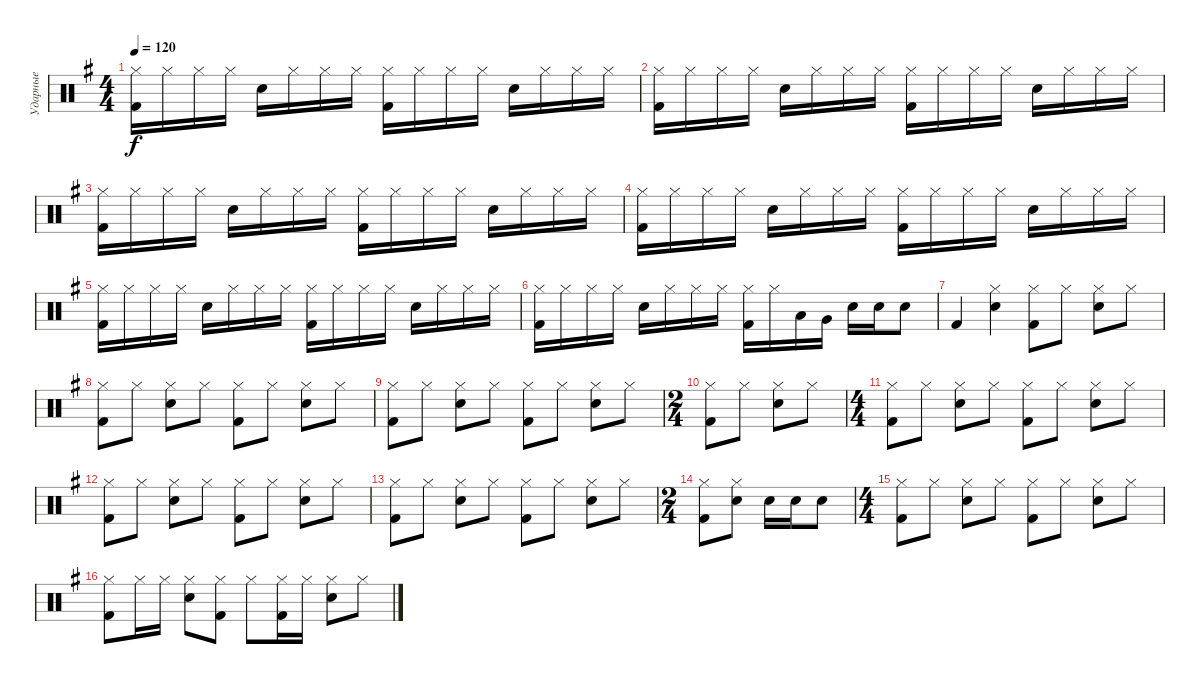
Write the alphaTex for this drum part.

\track ("Ударные" "Ударные") {instrument percussion}
\staff {score}
\articulation defaults
\ts (4 4)
\tempo 120
\clef neutral
\ks g
("Hi-Hat (closed)" "Kick (hit) 2").16{dy f} "Hi-Hat (closed)".16 "Hi-Hat (closed)".16 "Hi-Hat (closed)".16 "Snare (hit) 2".16 "Hi-Hat (closed)".16 "Hi-Hat (closed)".16 "Hi-Hat (closed)".16 ("Hi-Hat (closed)" "Kick (hit) 2").16 "Hi-Hat (closed)".16 "Hi-Hat (closed)".16 "Hi-Hat (closed)".16 "Snare (hit) 2".16 "Hi-Hat (closed)".16 "Hi-Hat (closed)".16 "Hi-Hat (closed)".16 |
("Hi-Hat (closed)" "Kick (hit) 2").16 "Hi-Hat (closed)".16 "Hi-Hat (closed)".16 "Hi-Hat (closed)".16 "Snare (hit) 2".16 "Hi-Hat (closed)".16 "Hi-Hat (closed)".16 "Hi-Hat (closed)".16 ("Hi-Hat (closed)" "Kick (hit) 2").16 "Hi-Hat (closed)".16 "Hi-Hat (closed)".16 "Hi-Hat (closed)".16 "Snare (hit) 2".16 "Hi-Hat (closed)".16 "Hi-Hat (closed)".16 "Hi-Hat (closed)".16 |
("Hi-Hat (closed)" "Kick (hit) 2").16 "Hi-Hat (closed)".16 "Hi-Hat (closed)".16 "Hi-Hat (closed)".16 "Snare (hit) 2".16 "Hi-Hat (closed)".16 "Hi-Hat (closed)".16 "Hi-Hat (closed)".16 ("Hi-Hat (closed)" "Kick (hit) 2").16 "Hi-Hat (closed)".16 "Hi-Hat (closed)".16 "Hi-Hat (closed)".16 "Snare (hit) 2".16 "Hi-Hat (closed)".16 "Hi-Hat (closed)".16 "Hi-Hat (closed)".16 |
("Hi-Hat (closed)" "Kick (hit) 2").16 "Hi-Hat (closed)".16 "Hi-Hat (closed)".16 "Hi-Hat (closed)".16 "Snare (hit) 2".16 "Hi-Hat (closed)".16 "Hi-Hat (closed)".16 "Hi-Hat (closed)".16 ("Hi-Hat (closed)" "Kick (hit) 2").16 "Hi-Hat (closed)".16 "Hi-Hat (closed)".16 "Hi-Hat (closed)".16 "Snare (hit) 2".16 "Hi-Hat (closed)".16 "Hi-Hat (closed)".16 "Hi-Hat (closed)".16 |
("Hi-Hat (closed)" "Kick (hit) 2").16 "Hi-Hat (closed)".16 "Hi-Hat (closed)".16 "Hi-Hat (closed)".16 "Snare (hit) 2".16 "Hi-Hat (closed)".16 "Hi-Hat (closed)".16 "Hi-Hat (closed)".16 ("Hi-Hat (closed)" "Kick (hit) 2").16 "Hi-Hat (closed)".16 "Hi-Hat (closed)".16 "Hi-Hat (closed)".16 "Snare (hit) 2".16 "Hi-Hat (closed)".16 "Hi-Hat (closed)".16 "Hi-Hat (closed)".16 |
("Hi-Hat (closed)" "Kick (hit) 2").16 "Hi-Hat (closed)".16 "Hi-Hat (closed)".16 "Hi-Hat (closed)".16 "Snare (hit) 2".16 "Hi-Hat (closed)".16 "Hi-Hat (closed)".16 "Hi-Hat (closed)".16 ("Hi-Hat (closed)" "Kick (hit) 2").16 "Hi-Hat (closed)".16 "Low Tom (hit)".16 "Very Low Tom (hit)".16 "Snare (hit) 2".16 "Snare (hit) 2".16 "Snare (hit) 2".8 |
"Kick (hit) 2".4 ("Hi-Hat (closed)" "Snare (hit) 2").4 ("Hi-Hat (closed)" "Kick (hit) 2").8 "Hi-Hat (closed)".8 ("Hi-Hat (closed)" "Snare (hit) 2").8 "Hi-Hat (closed)".8 |
("Hi-Hat (closed)" "Kick (hit) 2").8 "Hi-Hat (closed)".8 ("Hi-Hat (closed)" "Snare (hit) 2").8 "Hi-Hat (closed)".8 ("Hi-Hat (closed)" "Kick (hit) 2").8 "Hi-Hat (closed)".8 ("Hi-Hat (closed)" "Snare (hit) 2").8 "Hi-Hat (closed)".8 |
("Hi-Hat (closed)" "Kick (hit) 2").8 "Hi-Hat (closed)".8 ("Hi-Hat (closed)" "Snare (hit) 2").8 "Hi-Hat (closed)".8 ("Hi-Hat (closed)" "Kick (hit) 2").8 "Hi-Hat (closed)".8 ("Hi-Hat (closed)" "Snare (hit) 2").8 "Hi-Hat (closed)".8 |
\ts (2 4)
("Hi-Hat (closed)" "Kick (hit) 2").8 "Hi-Hat (closed)".8 ("Hi-Hat (closed)" "Snare (hit) 2").8 "Hi-Hat (closed)".8 |
\ts (4 4)
("Hi-Hat (closed)" "Kick (hit) 2").8 "Hi-Hat (closed)".8 ("Hi-Hat (closed)" "Snare (hit) 2").8 "Hi-Hat (closed)".8 ("Hi-Hat (closed)" "Kick (hit) 2").8 "Hi-Hat (closed)".8 ("Hi-Hat (closed)" "Snare (hit) 2").8 "Hi-Hat (closed)".8 |
("Hi-Hat (closed)" "Kick (hit) 2").8 "Hi-Hat (closed)".8 ("Hi-Hat (closed)" "Snare (hit) 2").8 "Hi-Hat (closed)".8 ("Hi-Hat (closed)" "Kick (hit) 2").8 "Hi-Hat (closed)".8 ("Hi-Hat (closed)" "Snare (hit) 2").8 "Hi-Hat (closed)".8 |
("Hi-Hat (closed)" "Kick (hit) 2").8 "Hi-Hat (closed)".8 ("Hi-Hat (closed)" "Snare (hit) 2").8 "Hi-Hat (closed)".8 ("Hi-Hat (closed)" "Kick (hit) 2").8 "Hi-Hat (closed)".8 ("Hi-Hat (closed)" "Snare (hit) 2").8 "Hi-Hat (closed)".8 |
\ts (2 4)
("Hi-Hat (closed)" "Kick (hit) 2").8 ("Hi-Hat (closed)" "Snare (hit) 2").8 "Snare (hit) 2".16 "Snare (hit) 2".16 "Snare (hit) 2".8 |
\ts (4 4)
("Hi-Hat (closed)" "Kick (hit) 2").8 "Hi-Hat (closed)".8 ("Hi-Hat (closed)" "Snare (hit) 2").8 "Hi-Hat (closed)".8 ("Hi-Hat (closed)" "Kick (hit) 2").8 "Hi-Hat (closed)".8 ("Hi-Hat (closed)" "Snare (hit) 2").8 "Hi-Hat (closed)".8 |
("Hi-Hat (closed)" "Kick (hit) 2").8 "Hi-Hat (closed)".16 "Hi-Hat (closed)".16 ("Hi-Hat (closed)" "Snare (hit) 2").8 ("Hi-Hat (closed)" "Kick (hit) 2").8 "Hi-Hat (closed)".8 ("Hi-Hat (closed)" "Kick (hit) 2").16 "Hi-Hat (closed)".16 ("Hi-Hat (closed)" "Snare (hit) 2").8 "Hi-Hat (closed)".8
